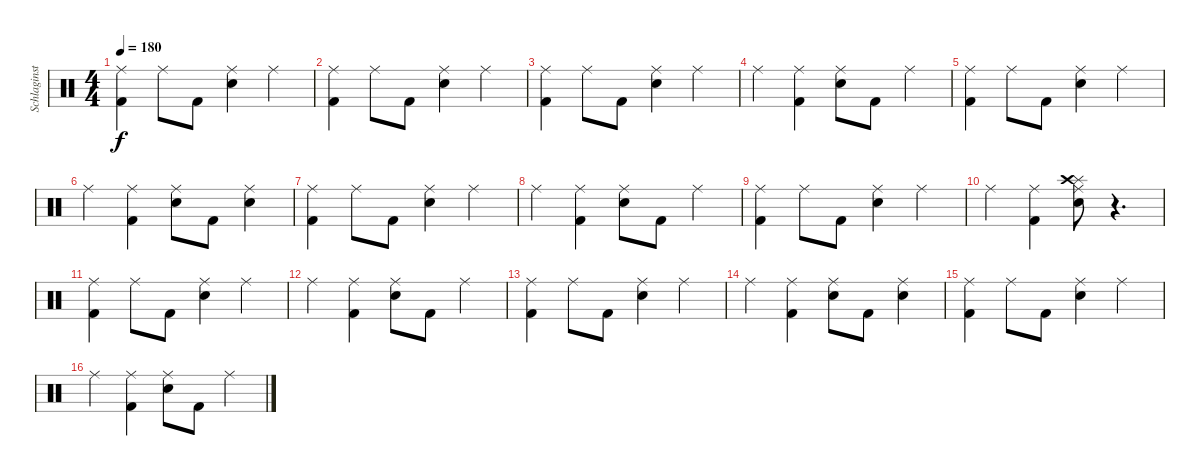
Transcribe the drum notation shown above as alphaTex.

\track ("Schlaginstrumente - Auswahl" "Schlaginst") {instrument percussion}
\staff {score}
\articulation defaults
\ts (4 4)
\tempo 180
\clef neutral
\ks c
("Ride (middle)" "Kick (hit) 2").4{dy f} "Ride (middle)".8 "Kick (hit) 2".8 ("Ride (middle)" "Snare (hit) 2").4 "Ride (middle)".4 |
("Ride (middle)" "Kick (hit) 2").4 "Ride (middle)".8 "Kick (hit) 2".8 ("Ride (middle)" "Snare (hit) 2").4 "Ride (middle)".4 |
("Ride (middle)" "Kick (hit) 2").4 "Ride (middle)".8 "Kick (hit) 2".8 ("Ride (middle)" "Snare (hit) 2").4 "Ride (middle)".4 |
"Ride (middle)".4 ("Ride (middle)" "Kick (hit) 2").4 ("Ride (middle)" "Snare (hit) 2").8 "Kick (hit) 2".8 "Ride (middle)".4 |
("Ride (middle)" "Kick (hit) 2").4 "Ride (middle)".8 "Kick (hit) 2".8 ("Ride (middle)" "Snare (hit) 2").4 "Ride (middle)".4 |
"Ride (middle)".4 ("Ride (middle)" "Kick (hit) 2").4 ("Ride (middle)" "Snare (hit) 2").8 "Kick (hit) 2".8 ("Ride (middle)" "Snare (hit) 2").4 |
("Ride (middle)" "Kick (hit) 2").4 "Ride (middle)".8 "Kick (hit) 2".8 ("Ride (middle)" "Snare (hit) 2").4 "Ride (middle)".4 |
"Ride (middle)".4 ("Ride (middle)" "Kick (hit) 2").4 ("Ride (middle)" "Snare (hit) 2").8 "Kick (hit) 2".8 "Ride (middle)".4 |
("Ride (middle)" "Kick (hit) 2").4 "Ride (middle)".8 "Kick (hit) 2".8 ("Ride (middle)" "Snare (hit) 2").4 "Ride (middle)".4 |
"Ride (middle)".4 ("Ride (middle)" "Kick (hit) 2").4 ("Ride (middle)" "Splash (hit)" "Snare (hit) 2" "Crash high (hit)").8 r.4{d} |
("Ride (middle)" "Kick (hit) 2").4 "Ride (middle)".8 "Kick (hit) 2".8 ("Ride (middle)" "Snare (hit) 2").4 "Ride (middle)".4 |
"Ride (middle)".4 ("Ride (middle)" "Kick (hit) 2").4 ("Ride (middle)" "Snare (hit) 2").8 "Kick (hit) 2".8 "Ride (middle)".4 |
("Ride (middle)" "Kick (hit) 2").4 "Ride (middle)".8 "Kick (hit) 2".8 ("Ride (middle)" "Snare (hit) 2").4 "Ride (middle)".4 |
"Ride (middle)".4 ("Ride (middle)" "Kick (hit) 2").4 ("Ride (middle)" "Snare (hit) 2").8 "Kick (hit) 2".8 ("Ride (middle)" "Snare (hit) 2").4 |
("Ride (middle)" "Kick (hit) 2").4 "Ride (middle)".8 "Kick (hit) 2".8 ("Ride (middle)" "Snare (hit) 2").4 "Ride (middle)".4 |
"Ride (middle)".4 ("Ride (middle)" "Kick (hit) 2").4 ("Ride (middle)" "Snare (hit) 2").8 "Kick (hit) 2".8 "Ride (middle)".4
